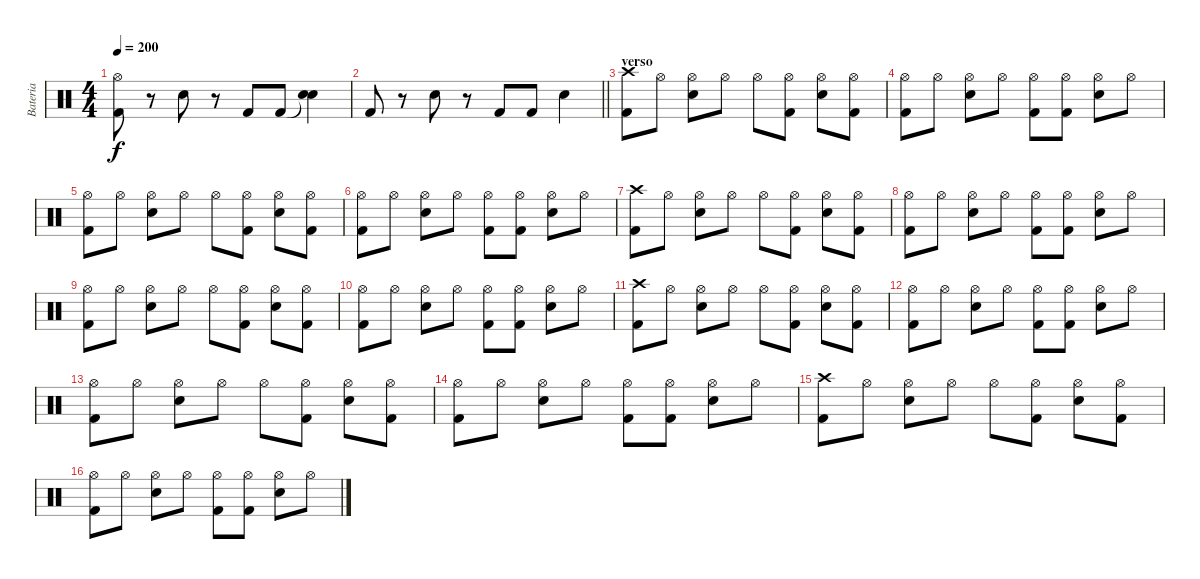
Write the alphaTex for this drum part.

\track ("Bateria" "Bateria") {instrument percussion}
\staff {score}
\articulation defaults
\ts (4 4)
\tempo 200
\clef neutral
\ks c
("Hi-Hat (open)" "Kick (hit) 2").8{dy f} r.8 "Snare (hit) 2".8 r.8 "Kick (hit) 2".8 "Kick (hit) 2".8 ("Snare (hit)"{t} "Snare (hit) 2").4 |
\barLineRight lightlight "Kick (hit) 2".8
r.8 "Snare (hit) 2".8 r.8 "Kick (hit) 2".8 "Kick (hit) 2".8 "Snare (hit) 2".4 |
\section ("" "verso")
("Crash high (hit)" "Kick (hit) 2").8 "Hi-Hat (open)".8 ("Hi-Hat (open)" "Snare (hit) 2").8 "Hi-Hat (open)".8 "Hi-Hat (open)".8 ("Hi-Hat (open)" "Kick (hit) 2").8 ("Hi-Hat (open)" "Snare (hit) 2").8 ("Hi-Hat (open)" "Kick (hit) 2").8 |
("Hi-Hat (open)" "Kick (hit) 2").8 "Hi-Hat (open)".8 ("Hi-Hat (open)" "Snare (hit) 2").8 "Hi-Hat (open)".8 ("Hi-Hat (open)" "Kick (hit) 2").8 ("Hi-Hat (open)" "Kick (hit) 2").8 ("Hi-Hat (open)" "Snare (hit) 2").8 "Hi-Hat (open)".8 |
("Hi-Hat (open)" "Kick (hit) 2").8 "Hi-Hat (open)".8 ("Hi-Hat (open)" "Snare (hit) 2").8 "Hi-Hat (open)".8 "Hi-Hat (open)".8 ("Hi-Hat (open)" "Kick (hit) 2").8 ("Hi-Hat (open)" "Snare (hit) 2").8 ("Hi-Hat (open)" "Kick (hit) 2").8 |
("Hi-Hat (open)" "Kick (hit) 2").8 "Hi-Hat (open)".8 ("Hi-Hat (open)" "Snare (hit) 2").8 "Hi-Hat (open)".8 ("Hi-Hat (open)" "Kick (hit) 2").8 ("Hi-Hat (open)" "Kick (hit) 2").8 ("Hi-Hat (open)" "Snare (hit) 2").8 "Hi-Hat (open)".8 |
("Crash high (hit)" "Kick (hit) 2").8 "Hi-Hat (open)".8 ("Hi-Hat (open)" "Snare (hit) 2").8 "Hi-Hat (open)".8 "Hi-Hat (open)".8 ("Hi-Hat (open)" "Kick (hit) 2").8 ("Hi-Hat (open)" "Snare (hit) 2").8 ("Hi-Hat (open)" "Kick (hit) 2").8 |
("Hi-Hat (open)" "Kick (hit) 2").8 "Hi-Hat (open)".8 ("Hi-Hat (open)" "Snare (hit) 2").8 "Hi-Hat (open)".8 ("Hi-Hat (open)" "Kick (hit) 2").8 ("Hi-Hat (open)" "Kick (hit) 2").8 ("Hi-Hat (open)" "Snare (hit) 2").8 "Hi-Hat (open)".8 |
("Hi-Hat (open)" "Kick (hit) 2").8 "Hi-Hat (open)".8 ("Hi-Hat (open)" "Snare (hit) 2").8 "Hi-Hat (open)".8 "Hi-Hat (open)".8 ("Hi-Hat (open)" "Kick (hit) 2").8 ("Hi-Hat (open)" "Snare (hit) 2").8 ("Hi-Hat (open)" "Kick (hit) 2").8 |
("Hi-Hat (open)" "Kick (hit) 2").8 "Hi-Hat (open)".8 ("Hi-Hat (open)" "Snare (hit) 2").8 "Hi-Hat (open)".8 ("Hi-Hat (open)" "Kick (hit) 2").8 ("Hi-Hat (open)" "Kick (hit) 2").8 ("Hi-Hat (open)" "Snare (hit) 2").8 "Hi-Hat (open)".8 |
("Crash high (hit)" "Kick (hit) 2").8 "Hi-Hat (open)".8 ("Hi-Hat (open)" "Snare (hit) 2").8 "Hi-Hat (open)".8 "Hi-Hat (open)".8 ("Hi-Hat (open)" "Kick (hit) 2").8 ("Hi-Hat (open)" "Snare (hit) 2").8 ("Hi-Hat (open)" "Kick (hit) 2").8 |
("Hi-Hat (open)" "Kick (hit) 2").8 "Hi-Hat (open)".8 ("Hi-Hat (open)" "Snare (hit) 2").8 "Hi-Hat (open)".8 ("Hi-Hat (open)" "Kick (hit) 2").8 ("Hi-Hat (open)" "Kick (hit) 2").8 ("Hi-Hat (open)" "Snare (hit) 2").8 "Hi-Hat (open)".8 |
("Hi-Hat (open)" "Kick (hit) 2").8 "Hi-Hat (open)".8 ("Hi-Hat (open)" "Snare (hit) 2").8 "Hi-Hat (open)".8 "Hi-Hat (open)".8 ("Hi-Hat (open)" "Kick (hit) 2").8 ("Hi-Hat (open)" "Snare (hit) 2").8 ("Hi-Hat (open)" "Kick (hit) 2").8 |
("Hi-Hat (open)" "Kick (hit) 2").8 "Hi-Hat (open)".8 ("Hi-Hat (open)" "Snare (hit) 2").8 "Hi-Hat (open)".8 ("Hi-Hat (open)" "Kick (hit) 2").8 ("Hi-Hat (open)" "Kick (hit) 2").8 ("Hi-Hat (open)" "Snare (hit) 2").8 "Hi-Hat (open)".8 |
("Crash high (hit)" "Kick (hit) 2").8 "Hi-Hat (open)".8 ("Hi-Hat (open)" "Snare (hit) 2").8 "Hi-Hat (open)".8 "Hi-Hat (open)".8 ("Hi-Hat (open)" "Kick (hit) 2").8 ("Hi-Hat (open)" "Snare (hit) 2").8 ("Hi-Hat (open)" "Kick (hit) 2").8 |
("Hi-Hat (open)" "Kick (hit) 2").8 "Hi-Hat (open)".8 ("Hi-Hat (open)" "Snare (hit) 2").8 "Hi-Hat (open)".8 ("Hi-Hat (open)" "Kick (hit) 2").8 ("Hi-Hat (open)" "Kick (hit) 2").8 ("Hi-Hat (open)" "Snare (hit) 2").8 "Hi-Hat (open)".8
